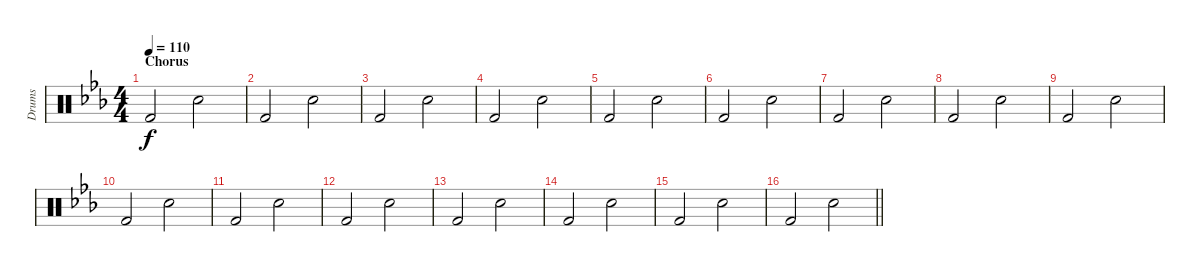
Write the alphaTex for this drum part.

\track ("Drums" "Drums") {instrument percussion}
\staff {score}
\articulation defaults
\ts (4 4)
\section ("" "Chorus")
\tempo 110
\clef neutral
\ks cminor "Kick (hit) 2".2{dy f} "Snare (hit) 2".2
|
"Kick (hit) 2".2 "Snare (hit) 2".2 |
"Kick (hit) 2".2 "Snare (hit) 2".2 |
"Kick (hit) 2".2 "Snare (hit) 2".2 |
"Kick (hit) 2".2 "Snare (hit) 2".2 |
"Kick (hit) 2".2 "Snare (hit) 2".2 |
"Kick (hit) 2".2 "Snare (hit) 2".2 |
"Kick (hit) 2".2 "Snare (hit) 2".2 |
"Kick (hit) 2".2 "Snare (hit) 2".2 |
"Kick (hit) 2".2 "Snare (hit) 2".2 |
"Kick (hit) 2".2 "Snare (hit) 2".2 |
"Kick (hit) 2".2 "Snare (hit) 2".2 |
"Kick (hit) 2".2 "Snare (hit) 2".2 |
"Kick (hit) 2".2 "Snare (hit) 2".2 |
"Kick (hit) 2".2 "Snare (hit) 2".2 |
\barLineRight lightlight "Kick (hit) 2".2 "Snare (hit) 2".2
